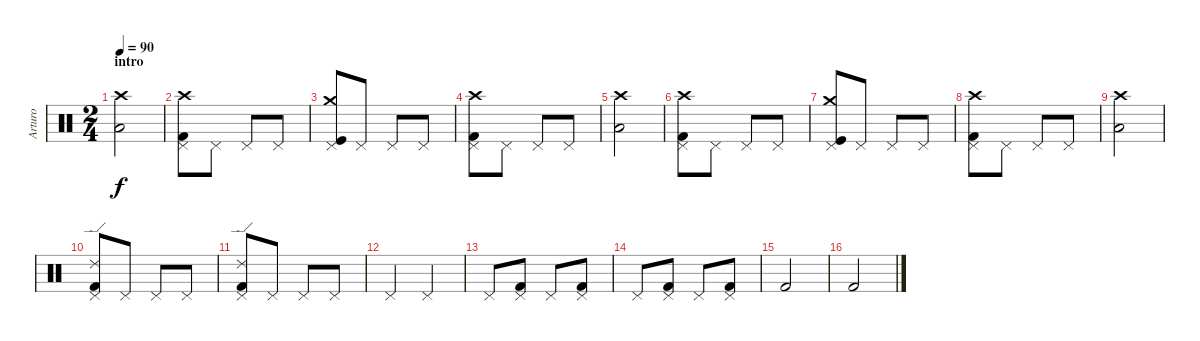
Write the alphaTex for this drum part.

\track ("Arturo" "Arturo") {instrument percussion}
\staff {score}
\articulation defaults
\ts (2 4)
\section ("" "intro")
\tempo 90
\clef neutral
\ks c
("Crash high (hit)" "Low Floor Tom (hit)").2{dy f} |
("Pedal Hi-Hat (hit)" "Crash high (hit)" "Kick (hit) 2").8 "Pedal Hi-Hat (hit)".8 "Pedal Hi-Hat (hit)".8 "Pedal Hi-Hat (hit)".8 |
("Pedal Hi-Hat (hit)" "Crash medium (hit)" "Kick (hit)").8 "Pedal Hi-Hat (hit)".8 "Pedal Hi-Hat (hit)".8 "Pedal Hi-Hat (hit)".8 |
("Pedal Hi-Hat (hit)" "Crash high (hit)" "Kick (hit) 2").8 "Pedal Hi-Hat (hit)".8 "Pedal Hi-Hat (hit)".8 "Pedal Hi-Hat (hit)".8 |
("Crash high (hit)" "Low Floor Tom (hit)").2 |
("Pedal Hi-Hat (hit)" "Crash high (hit)" "Kick (hit) 2").8 "Pedal Hi-Hat (hit)".8 "Pedal Hi-Hat (hit)".8 "Pedal Hi-Hat (hit)".8 |
("Pedal Hi-Hat (hit)" "Crash medium (hit)" "Kick (hit)").8 "Pedal Hi-Hat (hit)".8 "Pedal Hi-Hat (hit)".8 "Pedal Hi-Hat (hit)".8 |
("Pedal Hi-Hat (hit)" "Crash high (hit)" "Kick (hit) 2").8 "Pedal Hi-Hat (hit)".8 "Pedal Hi-Hat (hit)".8 "Pedal Hi-Hat (hit)".8 |
("Crash high (hit)" "Low Floor Tom (hit)").2 |
("Pedal Hi-Hat (hit)" "Ride (edge) 2" "Kick (hit) 2").8 "Pedal Hi-Hat (hit)".8 "Pedal Hi-Hat (hit)".8 "Pedal Hi-Hat (hit)".8 |
("Pedal Hi-Hat (hit)" "Ride (edge) 2" "Kick (hit) 2").8 "Pedal Hi-Hat (hit)".8 "Pedal Hi-Hat (hit)".8 "Pedal Hi-Hat (hit)".8 |
"Pedal Hi-Hat (hit)".4 "Pedal Hi-Hat (hit)".4 |
"Pedal Hi-Hat (hit)".8 ("Pedal Hi-Hat (hit)" "Kick (hit) 2").8 "Pedal Hi-Hat (hit)".8 ("Pedal Hi-Hat (hit)" "Kick (hit) 2").8 |
"Pedal Hi-Hat (hit)".8 ("Pedal Hi-Hat (hit)" "Kick (hit) 2").8 "Pedal Hi-Hat (hit)".8 ("Pedal Hi-Hat (hit)" "Kick (hit) 2").8 |
"Kick (hit) 2".2 |
"Kick (hit) 2".2
